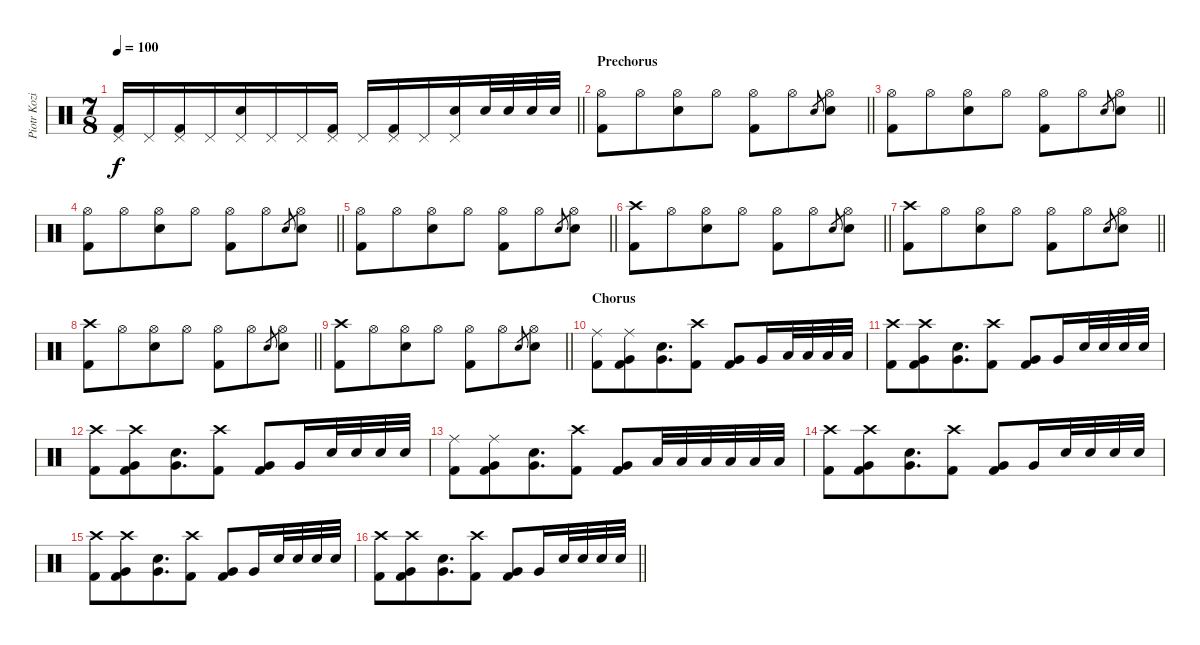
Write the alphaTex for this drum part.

\track ("Piotr Kozieradzki" "Piotr Kozi") {instrument percussion}
\staff {score}
\articulation defaults
\ts (7 8)
\tempo 100
\clef neutral
\barLineRight lightlight
\ks c
("Pedal Hi-Hat (hit)" "Kick (hit) 2").16{dy f} "Pedal Hi-Hat (hit)".16 ("Pedal Hi-Hat (hit)" "Kick (hit) 2").16 "Pedal Hi-Hat (hit)".16 ("Pedal Hi-Hat (hit)" "Snare (hit) 2").16 "Pedal Hi-Hat (hit)".16 "Pedal Hi-Hat (hit)".16 ("Pedal Hi-Hat (hit)" "Kick (hit) 2").16 "Pedal Hi-Hat (hit)".16 ("Pedal Hi-Hat (hit)" "Kick (hit) 2").16 "Pedal Hi-Hat (hit)".16 ("Pedal Hi-Hat (hit)" "Snare (hit) 2").16 "Snare (hit) 2".32 "Snare (hit) 2".32 "Snare (hit) 2".32 "Snare (hit) 2".32 |
\section ("" "Prechorus")
\barLineRight lightlight
("Hi-Hat (open)" "Kick (hit) 2").8 "Hi-Hat (open)".8 ("Hi-Hat (open)" "Snare (hit) 2").8 "Hi-Hat (open)".8 ("Hi-Hat (open)" "Kick (hit) 2").8 "Hi-Hat (open)".8 "Snare (hit) 2".8{gr} ("Hi-Hat (open)" "Snare (hit) 2").8 |
\barLineRight lightlight
("Hi-Hat (open)" "Kick (hit) 2").8 "Hi-Hat (open)".8 ("Hi-Hat (open)" "Snare (hit) 2").8 "Hi-Hat (open)".8 ("Hi-Hat (open)" "Kick (hit) 2").8 "Hi-Hat (open)".8 "Snare (hit) 2".8{gr} ("Hi-Hat (open)" "Snare (hit) 2").8 |
\barLineRight lightlight
("Hi-Hat (open)" "Kick (hit) 2").8 "Hi-Hat (open)".8 ("Hi-Hat (open)" "Snare (hit) 2").8 "Hi-Hat (open)".8 ("Hi-Hat (open)" "Kick (hit) 2").8 "Hi-Hat (open)".8 "Snare (hit) 2".8{gr} ("Hi-Hat (open)" "Snare (hit) 2").8 |
\barLineRight lightlight
("Hi-Hat (open)" "Kick (hit) 2").8 "Hi-Hat (open)".8 ("Hi-Hat (open)" "Snare (hit) 2").8 "Hi-Hat (open)".8 ("Hi-Hat (open)" "Kick (hit) 2").8 "Hi-Hat (open)".8 "Snare (hit) 2".8{gr} ("Hi-Hat (open)" "Snare (hit) 2").8 |
\barLineRight lightlight
("Crash high (hit)" "Kick (hit) 2").8 "Hi-Hat (open)".8 ("Hi-Hat (open)" "Snare (hit) 2").8 "Hi-Hat (open)".8 ("Hi-Hat (open)" "Kick (hit) 2").8 "Hi-Hat (open)".8 "Snare (hit) 2".8{gr} ("Hi-Hat (open)" "Snare (hit) 2").8 |
\barLineRight lightlight
("Crash high (hit)" "Kick (hit) 2").8 "Hi-Hat (open)".8 ("Hi-Hat (open)" "Snare (hit) 2").8 "Hi-Hat (open)".8 ("Hi-Hat (open)" "Kick (hit) 2").8 "Hi-Hat (open)".8 "Snare (hit) 2".8{gr} ("Hi-Hat (open)" "Snare (hit) 2").8 |
\barLineRight lightlight
("Crash high (hit)" "Kick (hit) 2").8 "Hi-Hat (open)".8 ("Hi-Hat (open)" "Snare (hit) 2").8 "Hi-Hat (open)".8 ("Hi-Hat (open)" "Kick (hit) 2").8 "Hi-Hat (open)".8 "Snare (hit) 2".8{gr} ("Hi-Hat (open)" "Snare (hit) 2").8 |
\barLineRight lightlight
("Crash high (hit)" "Kick (hit) 2").8 "Hi-Hat (open)".8 ("Hi-Hat (open)" "Snare (hit) 2").8 "Hi-Hat (open)".8 ("Hi-Hat (open)" "Kick (hit) 2").8 "Hi-Hat (open)".8 "Snare (hit) 2".8{gr} ("Hi-Hat (open)" "Snare (hit) 2").8 |
\section ("" "Chorus")
("Ride (middle)" "Kick (hit) 2").8 ("Ride (middle)" "Very Low Tom (hit)" "Kick (hit) 2").8 ("Very Low Tom (hit)" "Snare (hit) 2").8{d} ("Crash high (hit)" "Kick (hit) 2").8 ("Very Low Tom (hit)" "Kick (hit) 2").8 "Very Low Tom (hit)".16 "Low Floor Tom (hit)".32 "Low Floor Tom (hit)".32 "Low Floor Tom (hit)".32 "Low Floor Tom (hit)".32 |
("Crash high (hit)" "Kick (hit) 2").8 ("Crash high (hit)" "Very Low Tom (hit)" "Kick (hit) 2").8 ("Very Low Tom (hit)" "Snare (hit) 2").8{d} ("Crash high (hit)" "Kick (hit) 2").8 ("Very Low Tom (hit)" "Kick (hit) 2").8 "Very Low Tom (hit)".16 "Snare (hit) 2".32 "Snare (hit) 2".32 "Snare (hit) 2".32 "Snare (hit) 2".32 |
("Crash high (hit)" "Kick (hit) 2").8 ("Crash high (hit)" "Very Low Tom (hit)" "Kick (hit) 2").8 ("Very Low Tom (hit)" "Snare (hit) 2").8{d} ("Crash high (hit)" "Kick (hit) 2").8 ("Very Low Tom (hit)" "Kick (hit) 2").8 "Very Low Tom (hit)".16 "Snare (hit) 2".32 "Snare (hit) 2".32 "Snare (hit) 2".32 "Snare (hit) 2".32 |
("Ride (middle)" "Kick (hit) 2").8 ("Ride (middle)" "Very Low Tom (hit)" "Kick (hit) 2").8 ("Very Low Tom (hit)" "Snare (hit) 2").8{d} ("Crash high (hit)" "Kick (hit) 2").8 ("Very Low Tom (hit)" "Kick (hit) 2").8 "Low Floor Tom (hit)".32 "Low Floor Tom (hit)".32 "Low Floor Tom (hit)".32 "Low Floor Tom (hit)".32 "Low Floor Tom (hit)".32 "Low Floor Tom (hit)".32 |
("Crash high (hit)" "Kick (hit) 2").8 ("Crash high (hit)" "Very Low Tom (hit)" "Kick (hit) 2").8 ("Very Low Tom (hit)" "Snare (hit) 2").8{d} ("Crash high (hit)" "Kick (hit) 2").8 ("Very Low Tom (hit)" "Kick (hit) 2").8 "Very Low Tom (hit)".16 "Snare (hit) 2".32 "Snare (hit) 2".32 "Snare (hit) 2".32 "Snare (hit) 2".32 |
("Crash high (hit)" "Kick (hit) 2").8 ("Crash high (hit)" "Very Low Tom (hit)" "Kick (hit) 2").8 ("Very Low Tom (hit)" "Snare (hit) 2").8{d} ("Crash high (hit)" "Kick (hit) 2").8 ("Very Low Tom (hit)" "Kick (hit) 2").8 "Very Low Tom (hit)".16 "Snare (hit) 2".32 "Snare (hit) 2".32 "Snare (hit) 2".32 "Snare (hit) 2".32 |
\barLineRight lightlight
("Crash high (hit)" "Kick (hit) 2").8 ("Crash high (hit)" "Very Low Tom (hit)" "Kick (hit) 2").8 ("Very Low Tom (hit)" "Snare (hit) 2").8{d} ("Crash high (hit)" "Kick (hit) 2").8 ("Very Low Tom (hit)" "Kick (hit) 2").8 "Very Low Tom (hit)".16 "Snare (hit) 2".32 "Snare (hit) 2".32 "Snare (hit) 2".32 "Snare (hit) 2".32
